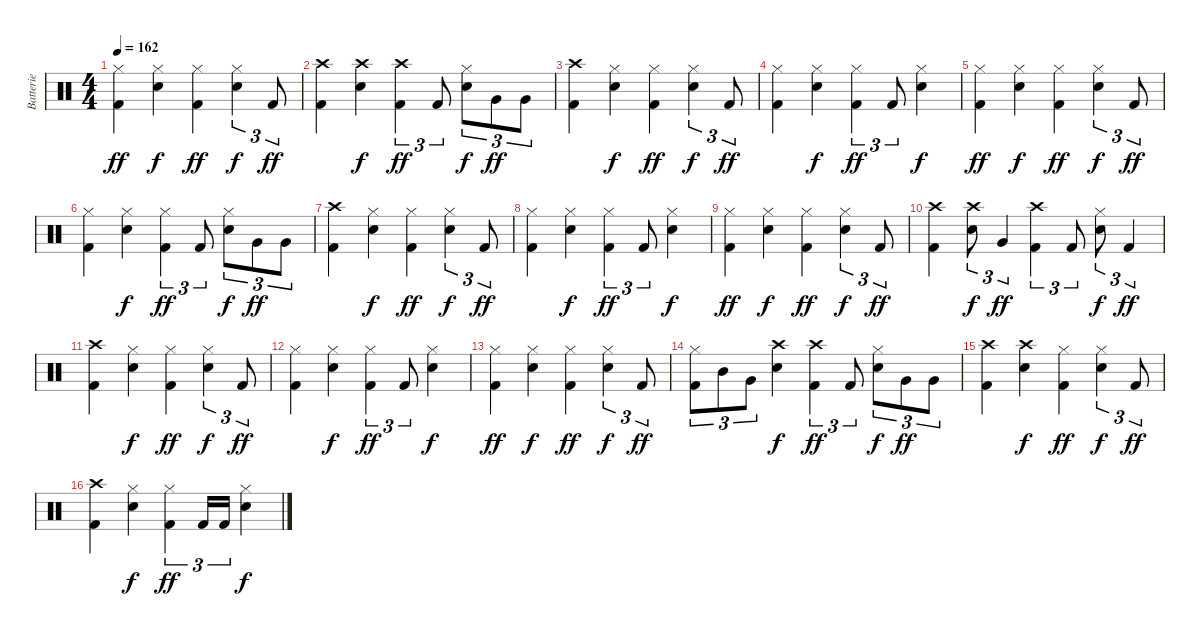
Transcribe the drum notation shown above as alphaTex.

\track ("Batterie" "Batterie") {instrument percussion}
\staff {score}
\articulation defaults
\ts (4 4)
\tempo 162
\clef neutral
\ks c
("Hi-Hat (closed)" "Kick (hit) 2").4{dy ff} ("Hi-Hat (closed)" "Snare (hit) 2").4{dy f} ("Hi-Hat (closed)" "Kick (hit) 2").4{dy ff} ("Hi-Hat (closed)" "Snare (hit) 2").4{tu (3 2) dy f} "Kick (hit) 2".8{tu (3 2) dy ff} |
("Crash high (hit)" "Kick (hit) 2").4 ("Crash high (hit)" "Snare (hit) 2").4{dy f} ("Crash high (hit)" "Kick (hit) 2").4{tu (3 2) dy ff} "Kick (hit) 2".8{tu (3 2)} ("Hi-Hat (closed)" "Snare (hit) 2").8{tu (3 2) dy f} "Very Low Tom (hit)".8{tu (3 2) dy ff} "Very Low Tom (hit)".8{tu (3 2)} |
("Crash high (hit)" "Kick (hit) 2").4 ("Hi-Hat (closed)" "Snare (hit) 2").4{dy f} ("Hi-Hat (closed)" "Kick (hit) 2").4{dy ff} ("Hi-Hat (closed)" "Snare (hit) 2").4{tu (3 2) dy f} "Kick (hit) 2".8{tu (3 2) dy ff} |
("Hi-Hat (closed)" "Kick (hit) 2").4 ("Hi-Hat (closed)" "Snare (hit) 2").4{dy f} ("Hi-Hat (closed)" "Kick (hit) 2").4{tu (3 2) dy ff} "Kick (hit) 2".8{tu (3 2)} ("Hi-Hat (closed)" "Snare (hit) 2").4{dy f} |
("Hi-Hat (closed)" "Kick (hit) 2").4{dy ff} ("Hi-Hat (closed)" "Snare (hit) 2").4{dy f} ("Hi-Hat (closed)" "Kick (hit) 2").4{dy ff} ("Hi-Hat (closed)" "Snare (hit) 2").4{tu (3 2) dy f} "Kick (hit) 2".8{tu (3 2) dy ff} |
("Hi-Hat (closed)" "Kick (hit) 2").4 ("Hi-Hat (closed)" "Snare (hit) 2").4{dy f} ("Hi-Hat (closed)" "Kick (hit) 2").4{tu (3 2) dy ff} "Kick (hit) 2".8{tu (3 2)} ("Hi-Hat (closed)" "Snare (hit) 2").8{tu (3 2) dy f} "Very Low Tom (hit)".8{tu (3 2) dy ff} "Very Low Tom (hit)".8{tu (3 2)} |
("Crash high (hit)" "Kick (hit) 2").4 ("Hi-Hat (closed)" "Snare (hit) 2").4{dy f} ("Hi-Hat (closed)" "Kick (hit) 2").4{dy ff} ("Hi-Hat (closed)" "Snare (hit) 2").4{tu (3 2) dy f} "Kick (hit) 2".8{tu (3 2) dy ff} |
("Hi-Hat (closed)" "Kick (hit) 2").4 ("Hi-Hat (closed)" "Snare (hit) 2").4{dy f} ("Hi-Hat (closed)" "Kick (hit) 2").4{tu (3 2) dy ff} "Kick (hit) 2".8{tu (3 2)} ("Hi-Hat (closed)" "Snare (hit) 2").4{dy f} |
("Hi-Hat (closed)" "Kick (hit) 2").4{dy ff} ("Hi-Hat (closed)" "Snare (hit) 2").4{dy f} ("Hi-Hat (closed)" "Kick (hit) 2").4{dy ff} ("Hi-Hat (closed)" "Snare (hit) 2").4{tu (3 2) dy f} "Kick (hit) 2".8{tu (3 2) dy ff} |
("Crash high (hit)" "Kick (hit) 2").4 ("Crash high (hit)" "Snare (hit) 2").8{tu (3 2) dy f} "Very Low Tom (hit)".4{tu (3 2) dy ff} ("Crash high (hit)" "Kick (hit) 2").4{tu (3 2)} "Kick (hit) 2".8{tu (3 2)} ("Hi-Hat (closed)" "Snare (hit) 2").8{tu (3 2) dy f} "Kick (hit) 2".4{tu (3 2) dy ff} |
("Crash high (hit)" "Kick (hit) 2").4 ("Hi-Hat (closed)" "Snare (hit) 2").4{dy f} ("Hi-Hat (closed)" "Kick (hit) 2").4{dy ff} ("Hi-Hat (closed)" "Snare (hit) 2").4{tu (3 2) dy f} "Kick (hit) 2".8{tu (3 2) dy ff} |
("Hi-Hat (closed)" "Kick (hit) 2").4 ("Hi-Hat (closed)" "Snare (hit) 2").4{dy f} ("Hi-Hat (closed)" "Kick (hit) 2").4{tu (3 2) dy ff} "Kick (hit) 2".8{tu (3 2)} ("Hi-Hat (closed)" "Snare (hit) 2").4{dy f} |
("Hi-Hat (closed)" "Kick (hit) 2").4{dy ff} ("Hi-Hat (closed)" "Snare (hit) 2").4{dy f} ("Hi-Hat (closed)" "Kick (hit) 2").4{dy ff} ("Hi-Hat (closed)" "Snare (hit) 2").4{tu (3 2) dy f} "Kick (hit) 2".8{tu (3 2) dy ff} |
("Hi-Hat (closed)" "Kick (hit) 2").8{tu (3 2)} "Mid Tom (hit)".8{tu (3 2)} "Very Low Tom (hit)".8{tu (3 2)} ("Crash high (hit)" "Snare (hit) 2").4{dy f} ("Crash high (hit)" "Kick (hit) 2").4{tu (3 2) dy ff} "Kick (hit) 2".8{tu (3 2)} ("Hi-Hat (closed)" "Snare (hit) 2").8{tu (3 2) dy f} "Very Low Tom (hit)".8{tu (3 2) dy ff} "Very Low Tom (hit)".8{tu (3 2)} |
("Crash high (hit)" "Kick (hit) 2").4 ("Crash high (hit)" "Snare (hit) 2").4{dy f} ("Hi-Hat (closed)" "Kick (hit) 2").4{dy ff} ("Hi-Hat (closed)" "Snare (hit) 2").4{tu (3 2) dy f} "Kick (hit) 2".8{tu (3 2) dy ff} |
("Crash high (hit)" "Kick (hit) 2").4 ("Hi-Hat (closed)" "Snare (hit) 2").4{dy f} ("Hi-Hat (closed)" "Kick (hit) 2").4{tu (3 2) dy ff} "Kick (hit) 2".16{tu (3 2)} "Kick (hit) 2".16{tu (3 2)} ("Hi-Hat (closed)" "Snare (hit) 2").4{dy f}
